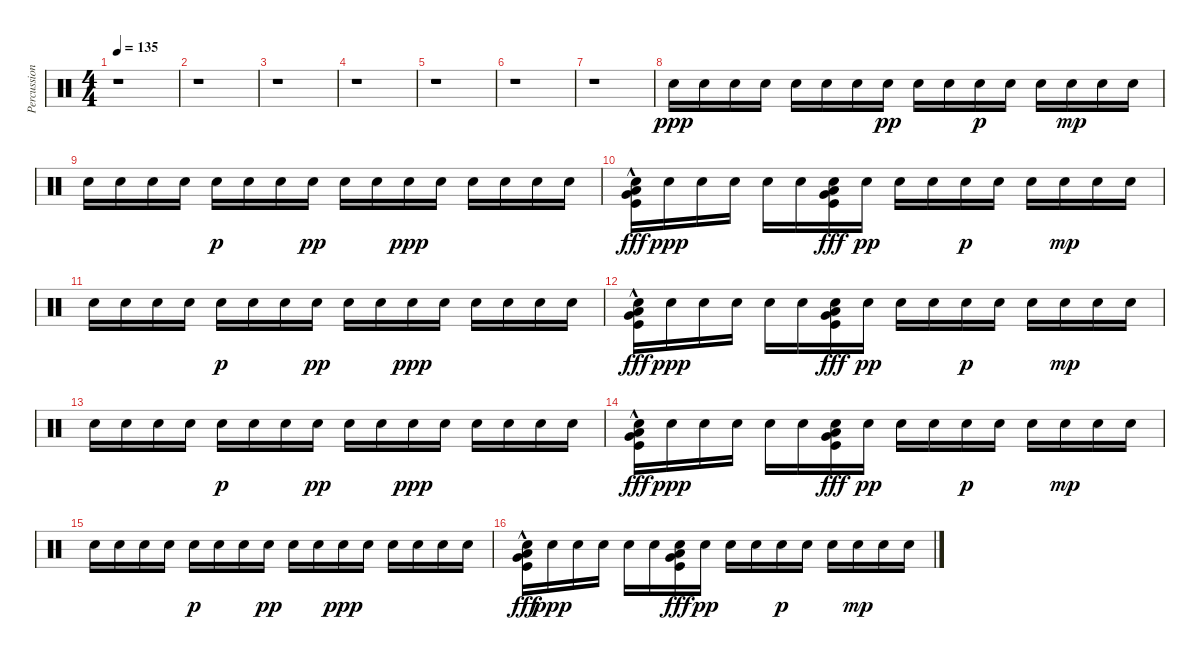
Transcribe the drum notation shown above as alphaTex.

\track ("Percussion" "Percussion") {instrument percussion}
\staff {score}
\articulation defaults
\ts (4 4)
\tempo 135
\tempo 100
\tempo 135
\clef neutral
\ks c
r.1{dy ppp} |
r.1 |
r.1 |
r.1 |
r.1 |
r.1 |
r.1 |
"Hand Clap (hit)".16 "Hand Clap (hit)".16 "Hand Clap (hit)".16 "Hand Clap (hit)".16 "Hand Clap (hit)".16 "Hand Clap (hit)".16 "Hand Clap (hit)".16 "Hand Clap (hit)".16{dy pp} "Hand Clap (hit)".16 "Hand Clap (hit)".16 "Hand Clap (hit)".16{dy p} "Hand Clap (hit)".16 "Hand Clap (hit)".16 "Hand Clap (hit)".16{dy mp} "Hand Clap (hit)".16 "Hand Clap (hit)".16 |
"Hand Clap (hit)".16 "Hand Clap (hit)".16 "Hand Clap (hit)".16 "Hand Clap (hit)".16 "Hand Clap (hit)".16{dy p} "Hand Clap (hit)".16 "Hand Clap (hit)".16 "Hand Clap (hit)".16{dy pp} "Hand Clap (hit)".16 "Hand Clap (hit)".16 "Hand Clap (hit)".16{dy ppp} "Hand Clap (hit)".16 "Hand Clap (hit)".16 "Hand Clap (hit)".16 "Hand Clap (hit)".16 "Hand Clap (hit)".16 |
("Kick (hit)"{hac} "Hand Clap (hit)" "Very Low Tom (hit)" "Low Floor Tom (hit)").16{dy fff} "Hand Clap (hit)".16{dy ppp} "Hand Clap (hit)".16 "Hand Clap (hit)".16 "Hand Clap (hit)".16 "Hand Clap (hit)".16 ("Kick (hit)" "Hand Clap (hit)" "Very Low Tom (hit)" "Low Floor Tom (hit)").16{dy fff} "Hand Clap (hit)".16{dy pp} "Hand Clap (hit)".16 "Hand Clap (hit)".16 "Hand Clap (hit)".16{dy p} "Hand Clap (hit)".16 "Hand Clap (hit)".16 "Hand Clap (hit)".16{dy mp} "Hand Clap (hit)".16 "Hand Clap (hit)".16 |
"Hand Clap (hit)".16 "Hand Clap (hit)".16 "Hand Clap (hit)".16 "Hand Clap (hit)".16 "Hand Clap (hit)".16{dy p} "Hand Clap (hit)".16 "Hand Clap (hit)".16 "Hand Clap (hit)".16{dy pp} "Hand Clap (hit)".16 "Hand Clap (hit)".16 "Hand Clap (hit)".16{dy ppp} "Hand Clap (hit)".16 "Hand Clap (hit)".16 "Hand Clap (hit)".16 "Hand Clap (hit)".16 "Hand Clap (hit)".16 |
("Kick (hit)"{hac} "Hand Clap (hit)" "Very Low Tom (hit)" "Low Floor Tom (hit)").16{dy fff} "Hand Clap (hit)".16{dy ppp} "Hand Clap (hit)".16 "Hand Clap (hit)".16 "Hand Clap (hit)".16 "Hand Clap (hit)".16 ("Kick (hit)" "Hand Clap (hit)" "Very Low Tom (hit)" "Low Floor Tom (hit)").16{dy fff} "Hand Clap (hit)".16{dy pp} "Hand Clap (hit)".16 "Hand Clap (hit)".16 "Hand Clap (hit)".16{dy p} "Hand Clap (hit)".16 "Hand Clap (hit)".16 "Hand Clap (hit)".16{dy mp} "Hand Clap (hit)".16 "Hand Clap (hit)".16 |
"Hand Clap (hit)".16 "Hand Clap (hit)".16 "Hand Clap (hit)".16 "Hand Clap (hit)".16 "Hand Clap (hit)".16{dy p} "Hand Clap (hit)".16 "Hand Clap (hit)".16 "Hand Clap (hit)".16{dy pp} "Hand Clap (hit)".16 "Hand Clap (hit)".16 "Hand Clap (hit)".16{dy ppp} "Hand Clap (hit)".16 "Hand Clap (hit)".16 "Hand Clap (hit)".16 "Hand Clap (hit)".16 "Hand Clap (hit)".16 |
("Kick (hit)"{hac} "Hand Clap (hit)" "Very Low Tom (hit)" "Low Floor Tom (hit)").16{dy fff} "Hand Clap (hit)".16{dy ppp} "Hand Clap (hit)".16 "Hand Clap (hit)".16 "Hand Clap (hit)".16 "Hand Clap (hit)".16 ("Kick (hit)" "Hand Clap (hit)" "Very Low Tom (hit)" "Low Floor Tom (hit)").16{dy fff} "Hand Clap (hit)".16{dy pp} "Hand Clap (hit)".16 "Hand Clap (hit)".16 "Hand Clap (hit)".16{dy p} "Hand Clap (hit)".16 "Hand Clap (hit)".16 "Hand Clap (hit)".16{dy mp} "Hand Clap (hit)".16 "Hand Clap (hit)".16 |
"Hand Clap (hit)".16 "Hand Clap (hit)".16 "Hand Clap (hit)".16 "Hand Clap (hit)".16 "Hand Clap (hit)".16{dy p} "Hand Clap (hit)".16 "Hand Clap (hit)".16 "Hand Clap (hit)".16{dy pp} "Hand Clap (hit)".16 "Hand Clap (hit)".16 "Hand Clap (hit)".16{dy ppp} "Hand Clap (hit)".16 "Hand Clap (hit)".16 "Hand Clap (hit)".16 "Hand Clap (hit)".16 "Hand Clap (hit)".16 |
("Kick (hit)"{hac} "Hand Clap (hit)" "Very Low Tom (hit)" "Low Floor Tom (hit)").16{dy fff} "Hand Clap (hit)".16{dy ppp} "Hand Clap (hit)".16 "Hand Clap (hit)".16 "Hand Clap (hit)".16 "Hand Clap (hit)".16 ("Kick (hit)" "Hand Clap (hit)" "Very Low Tom (hit)" "Low Floor Tom (hit)").16{dy fff} "Hand Clap (hit)".16{dy pp} "Hand Clap (hit)".16 "Hand Clap (hit)".16 "Hand Clap (hit)".16{dy p} "Hand Clap (hit)".16 "Hand Clap (hit)".16 "Hand Clap (hit)".16{dy mp} "Hand Clap (hit)".16 "Hand Clap (hit)".16
